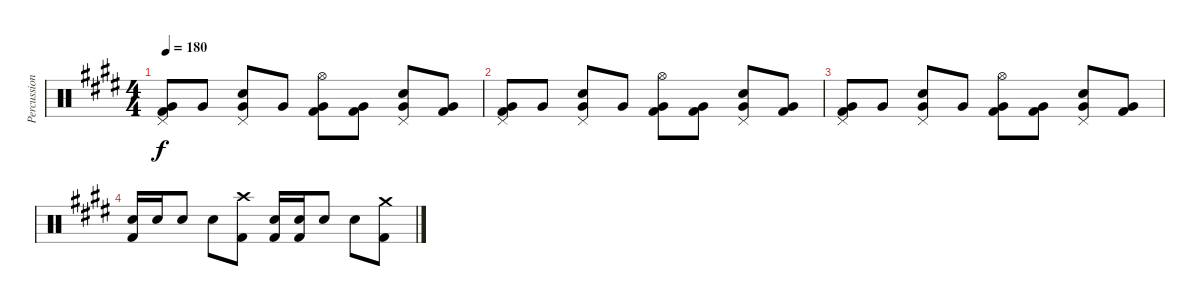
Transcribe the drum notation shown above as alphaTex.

\track ("Percussion" "Percussion") {instrument percussion}
\staff {score}
\articulation defaults
\ts (4 4)
\tempo 180
\clef neutral
\ks e
("Pedal Hi-Hat (hit)" "Very Low Tom (hit)" "Kick (hit) 2").8{dy f} "Very Low Tom (hit)".8 ("Pedal Hi-Hat (hit)" "Electric Snare (hit)" "Very Low Tom (hit)").8 "Very Low Tom (hit)".8 ("Hi-Hat (open)" "Very Low Tom (hit)" "Kick (hit) 2").8 ("Very Low Tom (hit)" "Kick (hit) 2").8 ("Pedal Hi-Hat (hit)" "Electric Snare (hit)" "Very Low Tom (hit)").8 ("Very Low Tom (hit)" "Kick (hit) 2").8 |
("Pedal Hi-Hat (hit)" "Very Low Tom (hit)" "Kick (hit) 2").8 "Very Low Tom (hit)".8 ("Pedal Hi-Hat (hit)" "Electric Snare (hit)" "Very Low Tom (hit)").8 "Very Low Tom (hit)".8 ("Hi-Hat (open)" "Very Low Tom (hit)" "Kick (hit) 2").8 ("Very Low Tom (hit)" "Kick (hit) 2").8 ("Pedal Hi-Hat (hit)" "Electric Snare (hit)" "Very Low Tom (hit)").8 ("Very Low Tom (hit)" "Kick (hit) 2").8 |
("Pedal Hi-Hat (hit)" "Very Low Tom (hit)" "Kick (hit) 2").8 "Very Low Tom (hit)".8 ("Pedal Hi-Hat (hit)" "Electric Snare (hit)" "Very Low Tom (hit)").8 "Very Low Tom (hit)".8 ("Hi-Hat (open)" "Very Low Tom (hit)" "Kick (hit) 2").8 ("Very Low Tom (hit)" "Kick (hit) 2").8 ("Pedal Hi-Hat (hit)" "Electric Snare (hit)" "Very Low Tom (hit)").8 ("Very Low Tom (hit)" "Kick (hit) 2").8 |
("Electric Snare (hit)" "Kick (hit) 2").16 "Electric Snare (hit)".16 "Electric Snare (hit)".8 "Electric Snare (hit)".8 ("Crash high (hit)" "Kick (hit) 2").8 ("Electric Snare (hit)" "Kick (hit) 2").16 ("Electric Snare (hit)" "Kick (hit) 2").16 "Electric Snare (hit)".8 "Electric Snare (hit)".8 ("Crash medium (hit)" "Kick (hit) 2").8
